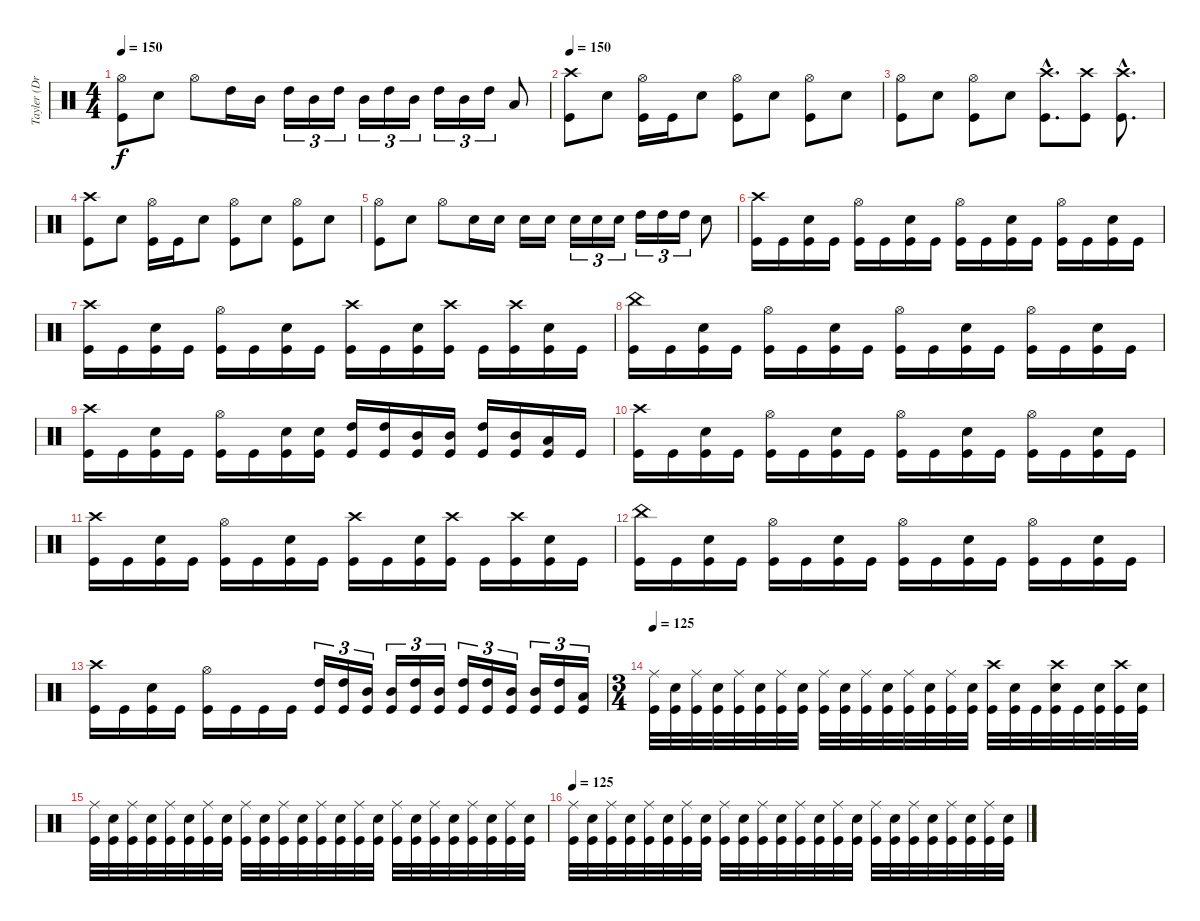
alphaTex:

\track ("Tayler (Drums)" "Tayler (Dr") {instrument percussion}
\staff {score}
\articulation defaults
\ts (4 4)
\tempo 150
\clef neutral
\ks c
("Hi-Hat (open)" "Kick (hit)").8{dy f} "Electric Snare (hit)".8 "Hi-Hat (open)".8 "High Tom (hit)".16 "Mid Tom (hit)".16 "High Tom (hit)".16{tu (3 2)} "Mid Tom (hit)".16{tu (3 2)} "High Tom (hit)".16{tu (3 2)} "Mid Tom (hit)".16{tu (3 2)} "High Tom (hit)".16{tu (3 2)} "Mid Tom (hit)".16{tu (3 2)} "High Tom (hit)".16{tu (3 2)} "Mid Tom (hit)".16{tu (3 2)} "High Tom (hit)".16{tu (3 2)} "Low Tom (hit)".8 |
\tempo 150
("Crash high (hit)" "Kick (hit)").8 "Electric Snare (hit)".8 ("Hi-Hat (open)" "Kick (hit)").16 "Kick (hit)".16 "Electric Snare (hit)".8 ("Hi-Hat (open)" "Kick (hit)").8 "Electric Snare (hit)".8 ("Hi-Hat (open)" "Kick (hit)").8 "Electric Snare (hit)".8 |
("Hi-Hat (open)" "Kick (hit)").8 "Electric Snare (hit)".8 ("Hi-Hat (open)" "Kick (hit)").8 "Electric Snare (hit)".8 ("Crash high (hit)"{hac} "Kick (hit)"{hac}).8{d} ("Crash high (hit)" "Kick (hit)").8 ("Crash high (hit)"{hac} "Kick (hit)"{hac}).8{d} |
("Crash high (hit)" "Kick (hit)").8 "Electric Snare (hit)".8 ("Hi-Hat (open)" "Kick (hit)").16 "Kick (hit)".16 "Electric Snare (hit)".8 ("Hi-Hat (open)" "Kick (hit)").8 "Electric Snare (hit)".8 ("Hi-Hat (open)" "Kick (hit)").8 "Electric Snare (hit)".8 |
("Hi-Hat (open)" "Kick (hit)").8 "Electric Snare (hit)".8 "Hi-Hat (open)".8 "Electric Snare (hit)".16 "Electric Snare (hit)".16 "Electric Snare (hit)".16 "Electric Snare (hit)".16 "Electric Snare (hit)".16{tu (3 2)} "Electric Snare (hit)".16{tu (3 2)} "Electric Snare (hit)".16{tu (3 2)} "High Tom (hit)".16{tu (3 2)} "High Tom (hit)".16{tu (3 2)} "High Tom (hit)".16{tu (3 2)} "Electric Snare (hit)".8 |
("Crash high (hit)" "Kick (hit)").16 "Kick (hit)".16 ("Electric Snare (hit)" "Kick (hit)").16 "Kick (hit)".16 ("Hi-Hat (open)" "Kick (hit)").16 "Kick (hit)".16 ("Electric Snare (hit)" "Kick (hit)").16 "Kick (hit)".16 ("Hi-Hat (open)" "Kick (hit)").16 "Kick (hit)".16 ("Electric Snare (hit)" "Kick (hit)").16 "Kick (hit)".16 ("Hi-Hat (open)" "Kick (hit)").16 "Kick (hit)".16 ("Electric Snare (hit)" "Kick (hit)").16 "Kick (hit)".16 |
("Crash high (hit)" "Kick (hit)").16 "Kick (hit)".16 ("Electric Snare (hit)" "Kick (hit)").16 "Kick (hit)".16 ("Hi-Hat (open)" "Kick (hit)").16 "Kick (hit)".16 ("Electric Snare (hit)" "Kick (hit)").16 "Kick (hit)".16 ("Crash high (hit)" "Kick (hit)").16 "Kick (hit)".16 ("Electric Snare (hit)" "Kick (hit)").16 ("Crash high (hit)" "Kick (hit)").16 "Kick (hit)".16 ("Crash high (hit)" "Kick (hit)").16 ("Electric Snare (hit)" "Kick (hit)").16 "Kick (hit)".16 |
("China (hit)" "Kick (hit)").16 "Kick (hit)".16 ("Electric Snare (hit)" "Kick (hit)").16 "Kick (hit)".16 ("Hi-Hat (open)" "Kick (hit)").16 "Kick (hit)".16 ("Electric Snare (hit)" "Kick (hit)").16 "Kick (hit)".16 ("Hi-Hat (open)" "Kick (hit)").16 "Kick (hit)".16 ("Electric Snare (hit)" "Kick (hit)").16 "Kick (hit)".16 ("Hi-Hat (open)" "Kick (hit)").16 "Kick (hit)".16 ("Electric Snare (hit)" "Kick (hit)").16 "Kick (hit)".16 |
("Crash high (hit)" "Kick (hit)").16 "Kick (hit)".16 ("Electric Snare (hit)" "Kick (hit)").16 "Kick (hit)".16 ("Hi-Hat (open)" "Kick (hit)").16 "Kick (hit)".16 ("Electric Snare (hit)" "Kick (hit)").16 ("Electric Snare (hit)" "Kick (hit)").16 ("High Tom (hit)" "Kick (hit)").16 ("High Tom (hit)" "Kick (hit)").16 ("Mid Tom (hit)" "Kick (hit)").16 ("Mid Tom (hit)" "Kick (hit)").16 ("High Tom (hit)" "Kick (hit)").16 ("Mid Tom (hit)" "Kick (hit)").16 ("Low Tom (hit)" "Kick (hit)").16 "Kick (hit)".16 |
("Crash high (hit)" "Kick (hit)").16 "Kick (hit)".16 ("Electric Snare (hit)" "Kick (hit)").16 "Kick (hit)".16 ("Hi-Hat (open)" "Kick (hit)").16 "Kick (hit)".16 ("Electric Snare (hit)" "Kick (hit)").16 "Kick (hit)".16 ("Hi-Hat (open)" "Kick (hit)").16 "Kick (hit)".16 ("Electric Snare (hit)" "Kick (hit)").16 "Kick (hit)".16 ("Hi-Hat (open)" "Kick (hit)").16 "Kick (hit)".16 ("Electric Snare (hit)" "Kick (hit)").16 "Kick (hit)".16 |
("Crash high (hit)" "Kick (hit)").16 "Kick (hit)".16 ("Electric Snare (hit)" "Kick (hit)").16 "Kick (hit)".16 ("Hi-Hat (open)" "Kick (hit)").16 "Kick (hit)".16 ("Electric Snare (hit)" "Kick (hit)").16 "Kick (hit)".16 ("Crash high (hit)" "Kick (hit)").16 "Kick (hit)".16 ("Electric Snare (hit)" "Kick (hit)").16 ("Crash high (hit)" "Kick (hit)").16 "Kick (hit)".16 ("Crash high (hit)" "Kick (hit)").16 ("Electric Snare (hit)" "Kick (hit)").16 "Kick (hit)".16 |
("China (hit)" "Kick (hit)").16 "Kick (hit)".16 ("Electric Snare (hit)" "Kick (hit)").16 "Kick (hit)".16 ("Hi-Hat (open)" "Kick (hit)").16 "Kick (hit)".16 ("Electric Snare (hit)" "Kick (hit)").16 "Kick (hit)".16 ("Hi-Hat (open)" "Kick (hit)").16 "Kick (hit)".16 ("Electric Snare (hit)" "Kick (hit)").16 "Kick (hit)".16 ("Hi-Hat (open)" "Kick (hit)").16 "Kick (hit)".16 ("Electric Snare (hit)" "Kick (hit)").16 "Kick (hit)".16 |
("Crash high (hit)" "Kick (hit)").16 "Kick (hit)".16 ("Electric Snare (hit)" "Kick (hit)").16 "Kick (hit)".16 ("Hi-Hat (open)" "Kick (hit)").16 "Kick (hit)".16 "Kick (hit)".16 "Kick (hit)".16 ("High Tom (hit)" "Kick (hit)").16{tu (3 2)} ("High Tom (hit)" "Kick (hit)").16{tu (3 2)} ("Mid Tom (hit)" "Kick (hit)").16{tu (3 2)} ("Mid Tom (hit)" "Kick (hit)").16{tu (3 2)} ("High Tom (hit)" "Kick (hit)").16{tu (3 2)} ("Mid Tom (hit)" "Kick (hit)").16{tu (3 2)} ("High Tom (hit)" "Kick (hit)").16{tu (3 2)} ("High Tom (hit)" "Kick (hit)").16{tu (3 2)} ("Mid Tom (hit)" "Kick (hit)").16{tu (3 2)} ("Mid Tom (hit)" "Kick (hit)").16{tu (3 2)} ("High Tom (hit)" "Kick (hit)").16{tu (3 2)} ("Low Tom (hit)" "Kick (hit)").16{tu (3 2)} |
\ts (3 4)
\tempo 125
("Ride (middle)" "Kick (hit)").32 ("Electric Snare (hit)" "Kick (hit)").32 ("Ride (middle)" "Kick (hit)").32 ("Electric Snare (hit)" "Kick (hit)").32 ("Ride (middle)" "Kick (hit)").32 ("Electric Snare (hit)" "Kick (hit)").32 ("Ride (middle)" "Kick (hit)").32 ("Electric Snare (hit)" "Kick (hit)").32 ("Ride (middle)" "Kick (hit)").32 ("Electric Snare (hit)" "Kick (hit)").32 ("Ride (middle)" "Kick (hit)").32 ("Electric Snare (hit)" "Kick (hit)").32 ("Ride (middle)" "Kick (hit)").32 ("Electric Snare (hit)" "Kick (hit)").32 ("Ride (middle)" "Kick (hit)").32 ("Electric Snare (hit)" "Kick (hit)").32 ("Crash high (hit)" "Kick (hit)").32 ("Electric Snare (hit)" "Kick (hit)").32 "Kick (hit)".32 ("Crash high (hit)" "Electric Snare (hit)" "Kick (hit)").32 "Kick (hit)".32 ("Electric Snare (hit)" "Kick (hit)").32 ("Crash high (hit)" "Kick (hit)").32 ("Electric Snare (hit)" "Kick (hit)").32 |
("Ride (middle)" "Kick (hit)").32 ("Electric Snare (hit)" "Kick (hit)").32 ("Ride (middle)" "Kick (hit)").32 ("Electric Snare (hit)" "Kick (hit)").32 ("Ride (middle)" "Kick (hit)").32 ("Electric Snare (hit)" "Kick (hit)").32 ("Ride (middle)" "Kick (hit)").32 ("Electric Snare (hit)" "Kick (hit)").32 ("Ride (middle)" "Kick (hit)").32 ("Electric Snare (hit)" "Kick (hit)").32 ("Ride (middle)" "Kick (hit)").32 ("Electric Snare (hit)" "Kick (hit)").32 ("Ride (middle)" "Kick (hit)").32 ("Electric Snare (hit)" "Kick (hit)").32 ("Ride (middle)" "Kick (hit)").32 ("Electric Snare (hit)" "Kick (hit)").32 ("Ride (middle)" "Kick (hit)").32 ("Electric Snare (hit)" "Kick (hit)").32 ("Ride (middle)" "Kick (hit)").32 ("Electric Snare (hit)" "Kick (hit)").32 ("Ride (middle)" "Kick (hit)").32 ("Electric Snare (hit)" "Kick (hit)").32 ("Ride (middle)" "Kick (hit)").32 ("Electric Snare (hit)" "Kick (hit)").32 |
\tempo 125
("Ride (middle)" "Kick (hit)").32 ("Electric Snare (hit)" "Kick (hit)").32 ("Ride (middle)" "Kick (hit)").32 ("Electric Snare (hit)" "Kick (hit)").32 ("Ride (middle)" "Kick (hit)").32 ("Electric Snare (hit)" "Kick (hit)").32 ("Ride (middle)" "Kick (hit)").32 ("Electric Snare (hit)" "Kick (hit)").32 ("Ride (middle)" "Kick (hit)").32 ("Electric Snare (hit)" "Kick (hit)").32 ("Ride (middle)" "Kick (hit)").32 ("Electric Snare (hit)" "Kick (hit)").32 ("Ride (middle)" "Kick (hit)").32 ("Electric Snare (hit)" "Kick (hit)").32 ("Ride (middle)" "Kick (hit)").32 ("Electric Snare (hit)" "Kick (hit)").32 ("Ride (middle)" "Kick (hit)").32 ("Electric Snare (hit)" "Kick (hit)").32 ("Ride (middle)" "Kick (hit)").32 ("Electric Snare (hit)" "Kick (hit)").32 ("Ride (middle)" "Kick (hit)").32 ("Electric Snare (hit)" "Kick (hit)").32 ("Ride (middle)" "Kick (hit)").32 ("Electric Snare (hit)" "Kick (hit)").32
